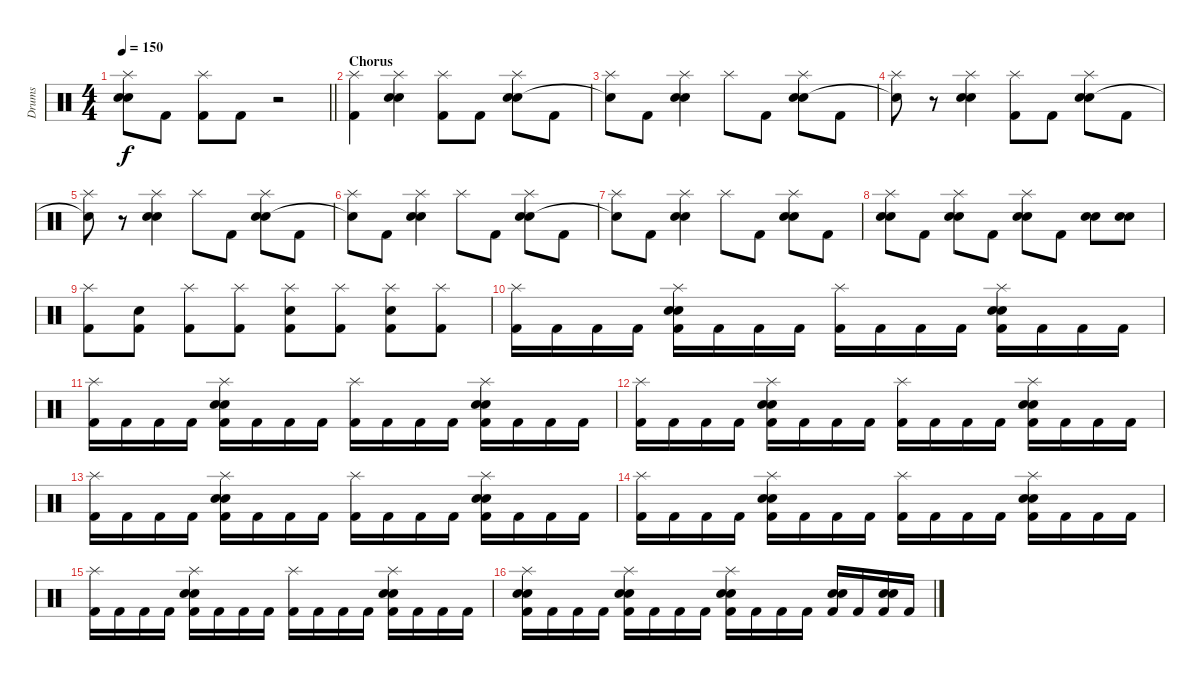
\track ("Drums" "Drums") {instrument percussion}
\staff {score}
\articulation defaults
\ts (4 4)
\tempo 150
\clef neutral
\barLineRight lightlight
\ks c
("Splash (hit)" "Electric Snare (hit)" "Snare (hit) 2").8{dy f} "Kick (hit) 2".8 ("Splash (hit)" "Kick (hit) 2").8 "Kick (hit) 2".8 r.2 |
\section ("" "Chorus")
("Splash (hit)" "Kick (hit) 2").4 ("Splash (hit)" "Electric Snare (hit)" "Snare (hit) 2").4 ("Splash (hit)" "Kick (hit) 2").8 "Kick (hit) 2".8 ("Splash (hit)" "Electric Snare (hit)" "Snare (hit) 2").8 "Kick (hit) 2".8 |
("Splash (hit)" "Snare (hit)"{t}).8 "Kick (hit) 2".8 ("Splash (hit)" "Electric Snare (hit)" "Snare (hit) 2").4 "Splash (hit)".8 "Kick (hit) 2".8 ("Splash (hit)" "Electric Snare (hit)" "Snare (hit) 2").8 "Kick (hit) 2".8 |
("Splash (hit)" "Snare (hit)"{t}).8 r.8 ("Splash (hit)" "Electric Snare (hit)" "Snare (hit) 2").4 ("Splash (hit)" "Kick (hit) 2").8 "Kick (hit) 2".8 ("Splash (hit)" "Electric Snare (hit)" "Snare (hit) 2").8 "Kick (hit) 2".8 |
("Splash (hit)" "Snare (hit)"{t}).8 r.8 ("Splash (hit)" "Electric Snare (hit)" "Snare (hit) 2").4 "Splash (hit)".8 "Kick (hit) 2".8 ("Splash (hit)" "Electric Snare (hit)" "Snare (hit) 2").8 "Kick (hit) 2".8 |
("Splash (hit)" "Snare (hit)"{t}).8 "Kick (hit) 2".8 ("Splash (hit)" "Electric Snare (hit)" "Snare (hit) 2").4 "Splash (hit)".8 "Kick (hit) 2".8 ("Splash (hit)" "Electric Snare (hit)" "Snare (hit) 2").8 "Kick (hit) 2".8 |
("Splash (hit)" "Snare (hit)"{t}).8 "Kick (hit) 2".8 ("Splash (hit)" "Electric Snare (hit)" "Snare (hit) 2").4 "Splash (hit)".8 "Kick (hit) 2".8 ("Splash (hit)" "Electric Snare (hit)" "Snare (hit) 2").8 "Kick (hit) 2".8 |
("Splash (hit)" "Electric Snare (hit)" "Snare (hit) 2").8 "Kick (hit) 2".8 ("Splash (hit)" "Electric Snare (hit)" "Snare (hit) 2").8 "Kick (hit) 2".8 ("Splash (hit)" "Electric Snare (hit)" "Snare (hit) 2").8 "Kick (hit) 2".8 ("Electric Snare (hit)" "Snare (hit) 2").8 ("Electric Snare (hit)" "Snare (hit) 2").8 |
("Splash (hit)" "Kick (hit) 2").8 ("Electric Snare (hit)" "Kick (hit) 2").8 ("Splash (hit)" "Kick (hit) 2").8 ("Splash (hit)" "Kick (hit) 2").8 ("Splash (hit)" "Electric Snare (hit)" "Kick (hit) 2").8 ("Splash (hit)" "Kick (hit) 2").8 ("Splash (hit)" "Electric Snare (hit)" "Kick (hit) 2").8 ("Splash (hit)" "Kick (hit) 2").8 |
("Splash (hit)" "Kick (hit) 2").16 "Kick (hit) 2".16 "Kick (hit) 2".16 "Kick (hit) 2".16 ("Splash (hit)" "Electric Snare (hit)" "Snare (hit) 2" "Kick (hit) 2").16 "Kick (hit) 2".16 "Kick (hit) 2".16 "Kick (hit) 2".16 ("Splash (hit)" "Kick (hit) 2").16 "Kick (hit) 2".16 "Kick (hit) 2".16 "Kick (hit) 2".16 ("Splash (hit)" "Electric Snare (hit)" "Snare (hit) 2" "Kick (hit) 2").16 "Kick (hit) 2".16 "Kick (hit) 2".16 "Kick (hit) 2".16 |
("Splash (hit)" "Kick (hit) 2").16 "Kick (hit) 2".16 "Kick (hit) 2".16 "Kick (hit) 2".16 ("Splash (hit)" "Electric Snare (hit)" "Snare (hit) 2" "Kick (hit) 2").16 "Kick (hit) 2".16 "Kick (hit) 2".16 "Kick (hit) 2".16 ("Splash (hit)" "Kick (hit) 2").16 "Kick (hit) 2".16 "Kick (hit) 2".16 "Kick (hit) 2".16 ("Splash (hit)" "Electric Snare (hit)" "Snare (hit) 2" "Kick (hit) 2").16 "Kick (hit) 2".16 "Kick (hit) 2".16 "Kick (hit) 2".16 |
("Splash (hit)" "Kick (hit) 2").16 "Kick (hit) 2".16 "Kick (hit) 2".16 "Kick (hit) 2".16 ("Splash (hit)" "Electric Snare (hit)" "Snare (hit) 2" "Kick (hit) 2").16 "Kick (hit) 2".16 "Kick (hit) 2".16 "Kick (hit) 2".16 ("Splash (hit)" "Kick (hit) 2").16 "Kick (hit) 2".16 "Kick (hit) 2".16 "Kick (hit) 2".16 ("Splash (hit)" "Electric Snare (hit)" "Snare (hit) 2" "Kick (hit) 2").16 "Kick (hit) 2".16 "Kick (hit) 2".16 "Kick (hit) 2".16 |
("Splash (hit)" "Kick (hit) 2").16 "Kick (hit) 2".16 "Kick (hit) 2".16 "Kick (hit) 2".16 ("Splash (hit)" "Electric Snare (hit)" "Snare (hit) 2" "Kick (hit) 2").16 "Kick (hit) 2".16 "Kick (hit) 2".16 "Kick (hit) 2".16 ("Splash (hit)" "Kick (hit) 2").16 "Kick (hit) 2".16 "Kick (hit) 2".16 "Kick (hit) 2".16 ("Splash (hit)" "Electric Snare (hit)" "Snare (hit) 2" "Kick (hit) 2").16 "Kick (hit) 2".16 "Kick (hit) 2".16 "Kick (hit) 2".16 |
("Splash (hit)" "Kick (hit) 2").16 "Kick (hit) 2".16 "Kick (hit) 2".16 "Kick (hit) 2".16 ("Splash (hit)" "Electric Snare (hit)" "Snare (hit) 2" "Kick (hit) 2").16 "Kick (hit) 2".16 "Kick (hit) 2".16 "Kick (hit) 2".16 ("Splash (hit)" "Kick (hit) 2").16 "Kick (hit) 2".16 "Kick (hit) 2".16 "Kick (hit) 2".16 ("Splash (hit)" "Electric Snare (hit)" "Snare (hit) 2" "Kick (hit) 2").16 "Kick (hit) 2".16 "Kick (hit) 2".16 "Kick (hit) 2".16 |
("Splash (hit)" "Kick (hit) 2").16 "Kick (hit) 2".16 "Kick (hit) 2".16 "Kick (hit) 2".16 ("Splash (hit)" "Electric Snare (hit)" "Snare (hit) 2" "Kick (hit) 2").16 "Kick (hit) 2".16 "Kick (hit) 2".16 "Kick (hit) 2".16 ("Splash (hit)" "Kick (hit) 2").16 "Kick (hit) 2".16 "Kick (hit) 2".16 "Kick (hit) 2".16 ("Splash (hit)" "Electric Snare (hit)" "Snare (hit) 2" "Kick (hit) 2").16 "Kick (hit) 2".16 "Kick (hit) 2".16 "Kick (hit) 2".16 |
("Splash (hit)" "Electric Snare (hit)" "Snare (hit) 2" "Kick (hit) 2").16 "Kick (hit) 2".16 "Kick (hit) 2".16 "Kick (hit) 2".16 ("Splash (hit)" "Electric Snare (hit)" "Snare (hit) 2" "Kick (hit) 2").16 "Kick (hit) 2".16 "Kick (hit) 2".16 "Kick (hit) 2".16 ("Splash (hit)" "Electric Snare (hit)" "Snare (hit) 2" "Kick (hit) 2").16 "Kick (hit) 2".16 "Kick (hit) 2".16 "Kick (hit) 2".16 ("Electric Snare (hit)" "Snare (hit) 2" "Kick (hit) 2").16 "Kick (hit) 2".16 ("Electric Snare (hit)" "Snare (hit) 2" "Kick (hit) 2").16 "Kick (hit) 2".16
